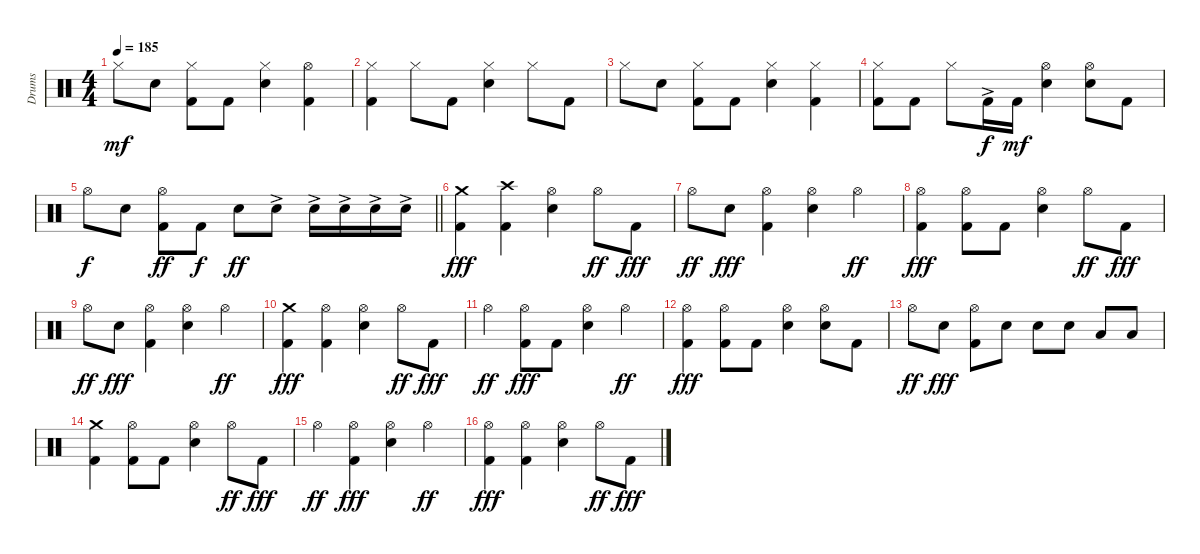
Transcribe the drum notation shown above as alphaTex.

\track ("Drums" "Drums") {instrument percussion}
\staff {score}
\articulation defaults
\ts (4 4)
\tempo 185
\clef neutral
\ks c "Hi-Hat (closed)".8{dy mf} "Snare (hit) 2".8
("Hi-Hat (closed)" "Kick (hit) 2").8 "Kick (hit) 2".8 ("Hi-Hat (closed)" "Snare (hit) 2").4 ("Hi-Hat (open)" "Kick (hit) 2").4 |
("Hi-Hat (closed)" "Kick (hit) 2").4 "Hi-Hat (closed)".8 "Kick (hit) 2".8 ("Hi-Hat (closed)" "Snare (hit) 2").4 "Hi-Hat (closed)".8 "Kick (hit) 2".8 |
"Hi-Hat (closed)".8 "Snare (hit) 2".8 ("Hi-Hat (closed)" "Kick (hit) 2").8 "Kick (hit) 2".8 ("Hi-Hat (closed)" "Snare (hit) 2").4 ("Hi-Hat (closed)" "Kick (hit) 2").4 |
("Hi-Hat (closed)" "Kick (hit) 2").8 "Kick (hit) 2".8 "Hi-Hat (closed)".8 "Kick (hit) 2"{ac}.16{dy f} "Kick (hit) 2".16{dy mf} ("Hi-Hat (open)" "Snare (hit) 2").4 ("Hi-Hat (open)" "Snare (hit) 2").8 "Kick (hit) 2".8 |
\barLineRight lightlight "Hi-Hat (open)".8{dy f} "Snare (hit) 2".8
("Hi-Hat (open)" "Kick (hit) 2").8{dy ff} "Kick (hit) 2".8{dy f} "Snare (hit) 2".8{dy ff} "Snare (hit) 2"{ac}.8 "Snare (hit) 2"{ac}.16 "Snare (hit) 2"{ac}.16 "Snare (hit) 2"{ac}.16 "Snare (hit) 2"{ac}.16 |
\section ("" "")
("Crash medium (hit)" "Kick (hit) 2").4{dy fff} ("Crash high (hit)" "Kick (hit) 2").4 ("Hi-Hat (open)" "Snare (hit) 2").4 "Hi-Hat (open)".8{dy ff} "Kick (hit) 2".8{dy fff} |
"Hi-Hat (open)".8{dy ff} "Snare (hit) 2".8{dy fff} ("Hi-Hat (open)" "Kick (hit) 2").4 ("Hi-Hat (open)" "Snare (hit) 2").4 "Hi-Hat (open)".4{dy ff} |
("Hi-Hat (open)" "Kick (hit) 2").4{dy fff} ("Hi-Hat (open)" "Kick (hit) 2").8 "Kick (hit) 2".8 ("Hi-Hat (open)" "Snare (hit) 2").4 "Hi-Hat (open)".8{dy ff} "Kick (hit) 2".8{dy fff} |
"Hi-Hat (open)".8{dy ff} "Snare (hit) 2".8{dy fff} ("Hi-Hat (open)" "Kick (hit) 2").4 ("Hi-Hat (open)" "Snare (hit) 2").4 "Hi-Hat (open)".4{dy ff} |
("Crash medium (hit)" "Kick (hit) 2").4{dy fff} ("Hi-Hat (open)" "Kick (hit) 2").4 ("Hi-Hat (open)" "Snare (hit) 2").4 "Hi-Hat (open)".8{dy ff} "Kick (hit) 2".8{dy fff} |
"Hi-Hat (open)".4{dy ff} ("Hi-Hat (open)" "Kick (hit) 2").8{dy fff} "Kick (hit) 2".8 ("Hi-Hat (open)" "Snare (hit) 2").4 "Hi-Hat (open)".4{dy ff} |
("Hi-Hat (open)" "Kick (hit) 2").4{dy fff} ("Hi-Hat (open)" "Kick (hit) 2").8 "Kick (hit) 2".8 ("Hi-Hat (open)" "Snare (hit) 2").4 ("Hi-Hat (open)" "Snare (hit) 2").8 "Kick (hit) 2".8 |
"Hi-Hat (open)".8{dy ff} "Snare (hit) 2".8{dy fff} ("Hi-Hat (open)" "Kick (hit) 2").8 "Snare (hit) 2".8 "Snare (hit) 2".8 "Snare (hit) 2".8 "Low Tom (hit)".8 "Low Tom (hit)".8 |
("Crash medium (hit)" "Kick (hit) 2").4 ("Hi-Hat (open)" "Kick (hit) 2").8 "Kick (hit) 2".8 ("Hi-Hat (open)" "Snare (hit) 2").4 "Hi-Hat (open)".8{dy ff} "Kick (hit) 2".8{dy fff} |
"Hi-Hat (open)".4{dy ff} ("Hi-Hat (open)" "Kick (hit) 2").4{dy fff} ("Hi-Hat (open)" "Snare (hit) 2").4 "Hi-Hat (open)".4{dy ff} |
("Hi-Hat (open)" "Kick (hit) 2").4{dy fff} ("Hi-Hat (open)" "Kick (hit) 2").4 ("Hi-Hat (open)" "Snare (hit) 2").4 "Hi-Hat (open)".8{dy ff} "Kick (hit) 2".8{dy fff}
